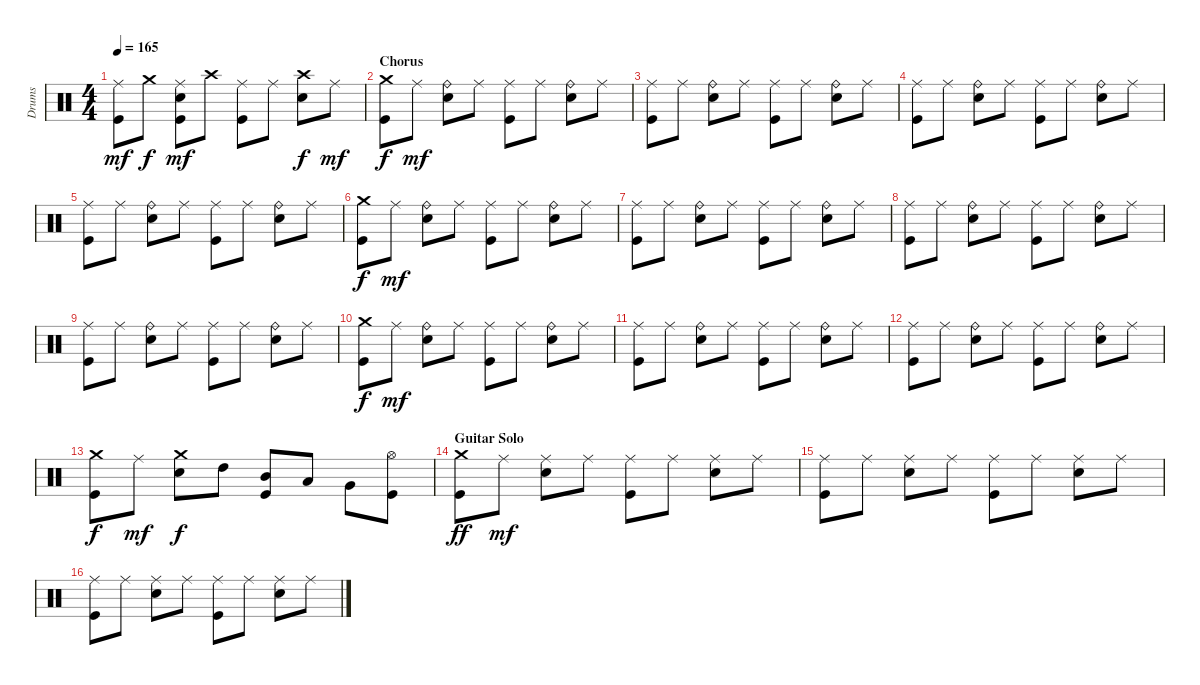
\track ("Drums" "Drums") {instrument percussion}
\staff {score}
\articulation defaults
\ts (4 4)
\tempo 165
\clef neutral
\ks c
("Ride (middle)" "Kick (hit)").8{dy mf} "Crash medium (hit)".8{dy f} ("Ride (middle)" "Electric Snare (hit)" "Kick (hit)").8{dy mf} "Crash high (hit)".8 ("Ride (middle)" "Kick (hit)").8 "Ride (middle)".8 ("Crash high (hit)" "Electric Snare (hit)").8{dy f} "Ride (middle)".8{dy mf} |
\section ("" "Chorus")
("Crash medium (hit)" "Kick (hit)").8{dy f} "Ride (middle)".8{dy mf} ("Ride (bell)" "Electric Snare (hit)").8 "Ride (middle)".8 ("Ride (middle)" "Kick (hit)").8 "Ride (middle)".8 ("Ride (bell)" "Electric Snare (hit)").8 "Ride (middle)".8 |
("Ride (middle)" "Kick (hit)").8 "Ride (middle)".8 ("Ride (bell)" "Electric Snare (hit)").8 "Ride (middle)".8 ("Ride (middle)" "Kick (hit)").8 "Ride (middle)".8 ("Ride (bell)" "Electric Snare (hit)").8 "Ride (middle)".8 |
("Ride (middle)" "Kick (hit)").8 "Ride (middle)".8 ("Ride (bell)" "Electric Snare (hit)").8 "Ride (middle)".8 ("Ride (middle)" "Kick (hit)").8 "Ride (middle)".8 ("Ride (bell)" "Electric Snare (hit)").8 "Ride (middle)".8 |
("Ride (middle)" "Kick (hit)").8 "Ride (middle)".8 ("Ride (bell)" "Electric Snare (hit)").8 "Ride (middle)".8 ("Ride (middle)" "Kick (hit)").8 "Ride (middle)".8 ("Ride (bell)" "Electric Snare (hit)").8 "Ride (middle)".8 |
("Crash medium (hit)" "Kick (hit)").8{dy f} "Ride (middle)".8{dy mf} ("Ride (bell)" "Electric Snare (hit)").8 "Ride (middle)".8 ("Ride (middle)" "Kick (hit)").8 "Ride (middle)".8 ("Ride (bell)" "Electric Snare (hit)").8 "Ride (middle)".8 |
("Ride (middle)" "Kick (hit)").8 "Ride (middle)".8 ("Ride (bell)" "Electric Snare (hit)").8 "Ride (middle)".8 ("Ride (middle)" "Kick (hit)").8 "Ride (middle)".8 ("Ride (bell)" "Electric Snare (hit)").8 "Ride (middle)".8 |
("Ride (middle)" "Kick (hit)").8 "Ride (middle)".8 ("Ride (bell)" "Electric Snare (hit)").8 "Ride (middle)".8 ("Ride (middle)" "Kick (hit)").8 "Ride (middle)".8 ("Ride (bell)" "Electric Snare (hit)").8 "Ride (middle)".8 |
("Ride (middle)" "Kick (hit)").8 "Ride (middle)".8 ("Ride (bell)" "Electric Snare (hit)").8 "Ride (middle)".8 ("Ride (middle)" "Kick (hit)").8 "Ride (middle)".8 ("Ride (bell)" "Electric Snare (hit)").8 "Ride (middle)".8 |
("Crash medium (hit)" "Kick (hit)").8{dy f} "Ride (middle)".8{dy mf} ("Ride (bell)" "Electric Snare (hit)").8 "Ride (middle)".8 ("Ride (middle)" "Kick (hit)").8 "Ride (middle)".8 ("Ride (bell)" "Electric Snare (hit)").8 "Ride (middle)".8 |
("Ride (middle)" "Kick (hit)").8 "Ride (middle)".8 ("Ride (bell)" "Electric Snare (hit)").8 "Ride (middle)".8 ("Ride (middle)" "Kick (hit)").8 "Ride (middle)".8 ("Ride (bell)" "Electric Snare (hit)").8 "Ride (middle)".8 |
("Ride (middle)" "Kick (hit)").8 "Ride (middle)".8 ("Ride (bell)" "Electric Snare (hit)").8 "Ride (middle)".8 ("Ride (middle)" "Kick (hit)").8 "Ride (middle)".8 ("Ride (bell)" "Electric Snare (hit)").8 "Ride (middle)".8 |
("Crash medium (hit)" "Kick (hit)").8{dy f} "Ride (middle)".8{dy mf} ("Crash medium (hit)" "Electric Snare (hit)").8{dy f} "High Tom (hit)".8 ("Mid Tom (hit)" "Kick (hit)").8 "Low Tom (hit)".8 "Very Low Tom (hit)".8 ("Kick (hit)" "Hi-Hat (open)").8 |
\section ("" "Guitar Solo")
("Crash medium (hit)" "Kick (hit)").8{dy ff} "Ride (middle)".8{dy mf} ("Ride (middle)" "Electric Snare (hit)").8 "Ride (middle)".8 ("Ride (middle)" "Kick (hit)").8 "Ride (middle)".8 ("Ride (middle)" "Electric Snare (hit)").8 "Ride (middle)".8 |
("Ride (middle)" "Kick (hit)").8 "Ride (middle)".8 ("Ride (middle)" "Electric Snare (hit)").8 "Ride (middle)".8 ("Ride (middle)" "Kick (hit)").8 "Ride (middle)".8 ("Ride (middle)" "Electric Snare (hit)").8 "Ride (middle)".8 |
("Ride (middle)" "Kick (hit)").8 "Ride (middle)".8 ("Ride (middle)" "Electric Snare (hit)").8 "Ride (middle)".8 ("Ride (middle)" "Kick (hit)").8 "Ride (middle)".8 ("Ride (middle)" "Electric Snare (hit)").8 "Ride (middle)".8
